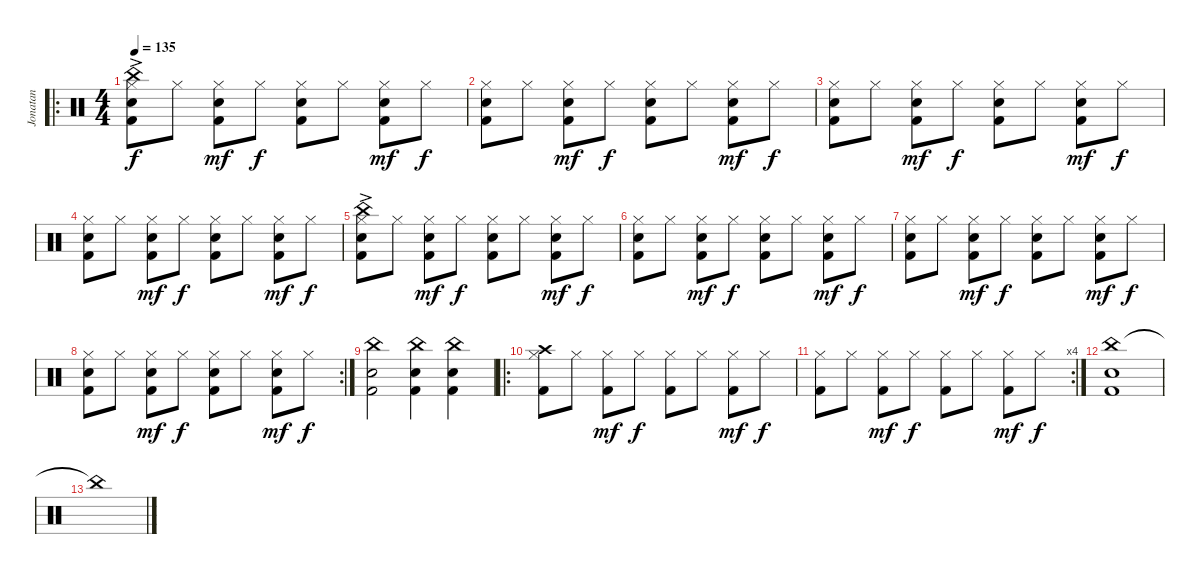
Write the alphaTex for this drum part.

\track ("Jonatan" "Jonatan") {instrument percussion}
\staff {score}
\articulation defaults
\ro
\ts (4 4)
\tempo 135
\clef neutral
\ks c
("China (hit)"{ac} "Hi-Hat (closed)" "Electric Snare (hit)" "Kick (hit) 2").8{dy f} "Hi-Hat (closed)".8 ("Hi-Hat (closed)" "Electric Snare (hit)" "Kick (hit) 2").8{dy mf} "Hi-Hat (closed)".8{dy f} ("Hi-Hat (closed)" "Electric Snare (hit)" "Kick (hit) 2").8 "Hi-Hat (closed)".8 ("Hi-Hat (closed)" "Electric Snare (hit)" "Kick (hit) 2").8{dy mf} "Hi-Hat (closed)".8{dy f} |
("Hi-Hat (closed)" "Electric Snare (hit)" "Kick (hit) 2").8 "Hi-Hat (closed)".8 ("Hi-Hat (closed)" "Electric Snare (hit)" "Kick (hit) 2").8{dy mf} "Hi-Hat (closed)".8{dy f} ("Hi-Hat (closed)" "Electric Snare (hit)" "Kick (hit) 2").8 "Hi-Hat (closed)".8 ("Hi-Hat (closed)" "Electric Snare (hit)" "Kick (hit) 2").8{dy mf} "Hi-Hat (closed)".8{dy f} |
("Hi-Hat (closed)" "Electric Snare (hit)" "Kick (hit) 2").8 "Hi-Hat (closed)".8 ("Hi-Hat (closed)" "Electric Snare (hit)" "Kick (hit) 2").8{dy mf} "Hi-Hat (closed)".8{dy f} ("Hi-Hat (closed)" "Electric Snare (hit)" "Kick (hit) 2").8 "Hi-Hat (closed)".8 ("Hi-Hat (closed)" "Electric Snare (hit)" "Kick (hit) 2").8{dy mf} "Hi-Hat (closed)".8{dy f} |
("Hi-Hat (closed)" "Electric Snare (hit)" "Kick (hit) 2").8 "Hi-Hat (closed)".8 ("Hi-Hat (closed)" "Electric Snare (hit)" "Kick (hit) 2").8{dy mf} "Hi-Hat (closed)".8{dy f} ("Hi-Hat (closed)" "Electric Snare (hit)" "Kick (hit) 2").8 "Hi-Hat (closed)".8 ("Hi-Hat (closed)" "Electric Snare (hit)" "Kick (hit) 2").8{dy mf} "Hi-Hat (closed)".8{dy f} |
("China (hit)"{ac} "Hi-Hat (closed)" "Electric Snare (hit)" "Kick (hit) 2").8 "Hi-Hat (closed)".8 ("Hi-Hat (closed)" "Electric Snare (hit)" "Kick (hit) 2").8{dy mf} "Hi-Hat (closed)".8{dy f} ("Hi-Hat (closed)" "Electric Snare (hit)" "Kick (hit) 2").8 "Hi-Hat (closed)".8 ("Hi-Hat (closed)" "Electric Snare (hit)" "Kick (hit) 2").8{dy mf} "Hi-Hat (closed)".8{dy f} |
("Hi-Hat (closed)" "Electric Snare (hit)" "Kick (hit) 2").8 "Hi-Hat (closed)".8 ("Hi-Hat (closed)" "Electric Snare (hit)" "Kick (hit) 2").8{dy mf} "Hi-Hat (closed)".8{dy f} ("Hi-Hat (closed)" "Electric Snare (hit)" "Kick (hit) 2").8 "Hi-Hat (closed)".8 ("Hi-Hat (closed)" "Electric Snare (hit)" "Kick (hit) 2").8{dy mf} "Hi-Hat (closed)".8{dy f} |
("Hi-Hat (closed)" "Electric Snare (hit)" "Kick (hit) 2").8 "Hi-Hat (closed)".8 ("Hi-Hat (closed)" "Electric Snare (hit)" "Kick (hit) 2").8{dy mf} "Hi-Hat (closed)".8{dy f} ("Hi-Hat (closed)" "Electric Snare (hit)" "Kick (hit) 2").8 "Hi-Hat (closed)".8 ("Hi-Hat (closed)" "Electric Snare (hit)" "Kick (hit) 2").8{dy mf} "Hi-Hat (closed)".8{dy f} |
\rc 2
("Hi-Hat (closed)" "Electric Snare (hit)" "Kick (hit) 2").8 "Hi-Hat (closed)".8 ("Hi-Hat (closed)" "Electric Snare (hit)" "Kick (hit) 2").8{dy mf} "Hi-Hat (closed)".8{dy f} ("Hi-Hat (closed)" "Electric Snare (hit)" "Kick (hit) 2").8 "Hi-Hat (closed)".8 ("Hi-Hat (closed)" "Electric Snare (hit)" "Kick (hit) 2").8{dy mf} "Hi-Hat (closed)".8{dy f} |
("China (hit)" "Electric Snare (hit)" "Kick (hit) 2").2 ("China (hit)" "Electric Snare (hit)" "Kick (hit) 2").4 ("China (hit)" "Electric Snare (hit)" "Kick (hit) 2").4 |
\ro
("Crash high (hit)" "Hi-Hat (closed)" "Kick (hit) 2").8 "Hi-Hat (closed)".8 ("Hi-Hat (closed)" "Kick (hit) 2").8{dy mf} "Hi-Hat (closed)".8{dy f} ("Hi-Hat (closed)" "Kick (hit) 2").8 "Hi-Hat (closed)".8 ("Hi-Hat (closed)" "Kick (hit) 2").8{dy mf} "Hi-Hat (closed)".8{dy f} |
\rc 4
("Hi-Hat (closed)" "Kick (hit) 2").8 "Hi-Hat (closed)".8 ("Hi-Hat (closed)" "Kick (hit) 2").8{dy mf} "Hi-Hat (closed)".8{dy f} ("Hi-Hat (closed)" "Kick (hit) 2").8 "Hi-Hat (closed)".8 ("Hi-Hat (closed)" "Kick (hit) 2").8{dy mf} "Hi-Hat (closed)".8{dy f} |
("China (hit)" "Electric Snare (hit)" "Kick (hit) 2").1 |
"China (hit)"{t}.1
